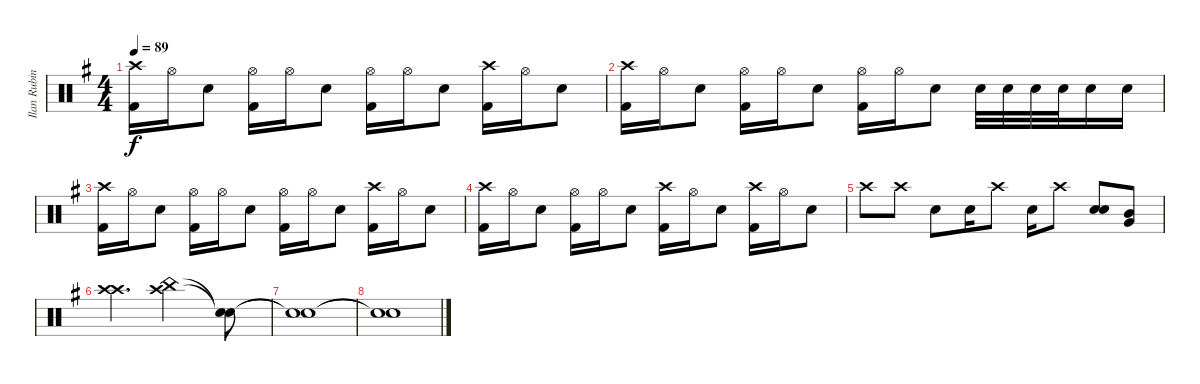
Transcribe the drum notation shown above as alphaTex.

\track ("Ilan Rubin (Batería)" "Ilan Rubin") {instrument percussion}
\staff {score}
\articulation defaults
\ts (4 4)
\tempo 89
\clef neutral
\ks g
("Kick (hit) 2" "Crash high (hit)").16{dy f} "Hi-Hat (open)".16 "Electric Snare (hit)".8 ("Kick (hit) 2" "Hi-Hat (open)").16 "Hi-Hat (open)".16 "Electric Snare (hit)".8 ("Kick (hit) 2" "Hi-Hat (open)").16 "Hi-Hat (open)".16 "Electric Snare (hit)".8 ("Kick (hit) 2" "Crash high (hit)").16 "Hi-Hat (open)".16 "Electric Snare (hit)".8 |
("Kick (hit) 2" "Crash high (hit)").16 "Hi-Hat (open)".16 "Electric Snare (hit)".8 ("Kick (hit) 2" "Hi-Hat (open)").16 "Hi-Hat (open)".16 "Electric Snare (hit)".8 ("Kick (hit) 2" "Hi-Hat (open)").16 "Hi-Hat (open)".16 "Electric Snare (hit)".8 "Electric Snare (hit)".32 "Electric Snare (hit)".32 "Electric Snare (hit)".32 "Electric Snare (hit)".32 "Electric Snare (hit)".16 "Electric Snare (hit)".16 |
("Kick (hit) 2" "Crash high (hit)").16 "Hi-Hat (open)".16 "Electric Snare (hit)".8 ("Kick (hit) 2" "Hi-Hat (open)").16 "Hi-Hat (open)".16 "Electric Snare (hit)".8 ("Kick (hit) 2" "Hi-Hat (open)").16 "Hi-Hat (open)".16 "Electric Snare (hit)".8 ("Kick (hit) 2" "Crash high (hit)").16 "Hi-Hat (open)".16 "Electric Snare (hit)".8 |
("Kick (hit) 2" "Crash high (hit)").16 "Hi-Hat (open)".16 "Electric Snare (hit)".8 ("Kick (hit) 2" "Hi-Hat (open)").16 "Hi-Hat (open)".16 "Electric Snare (hit)".8 ("Kick (hit) 2" "Crash high (hit)").16 "Hi-Hat (open)".16 "Electric Snare (hit)".8 ("Kick (hit) 2" "Crash high (hit)").16 "Hi-Hat (open)".16 "Electric Snare (hit)".8 |
"Crash high (hit)".8 "Crash high (hit)".8 "Electric Snare (hit)".8 "Electric Snare (hit)".16 "Crash high (hit)".8 "Electric Snare (hit)".16 "Crash high (hit)".8 ("Electric Snare (hit)" "Electric Snare (hit)").8 ("Mid Tom (hit)" "Very Low Tom (hit)").8 |
("Crash high (hit)" "Crash high (hit)").4{d} ("Crash high (hit)" "China (hit)").2 ("Snare (hit)"{t} "Snare (hit)"{t}).8 |
("Snare (hit)"{t} "Snare (hit)"{t}).1 |
("Snare (hit)"{t} "Snare (hit)"{t}).1
